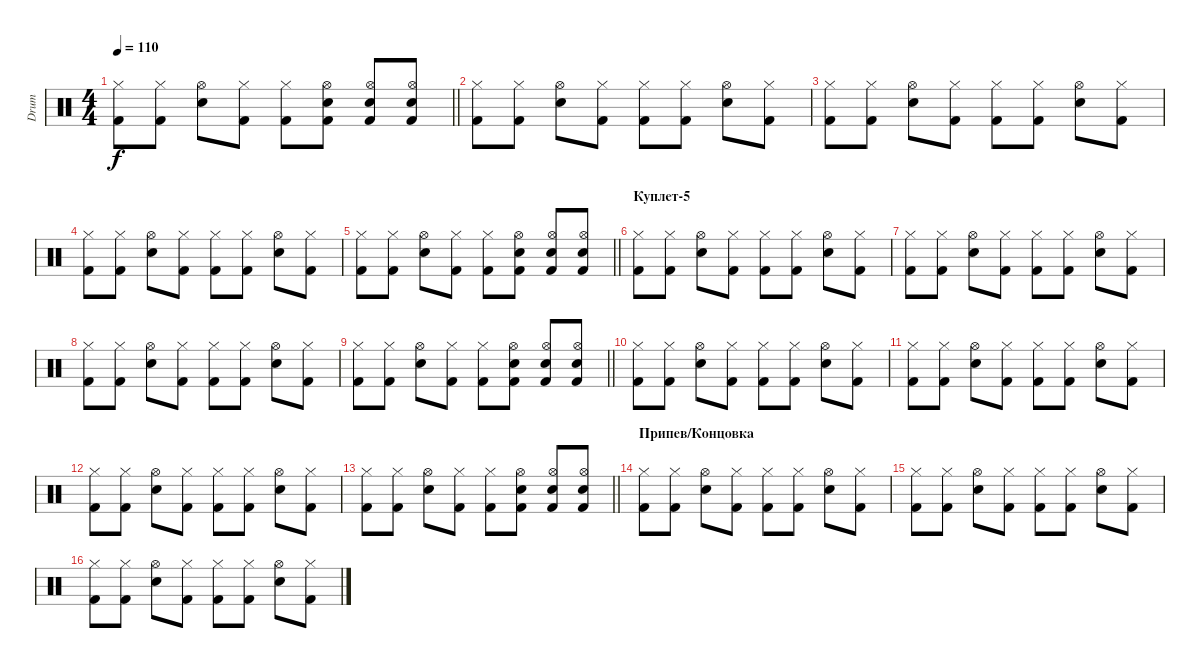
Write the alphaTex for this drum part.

\track ("Drum" "Drum") {instrument percussion}
\staff {score}
\articulation defaults
\ts (4 4)
\tempo 110
\clef neutral
\barLineRight lightlight
\ks c
("Hi-Hat (closed)" "Kick (hit) 2").8{dy f} ("Hi-Hat (closed)" "Kick (hit) 2").8 ("Hi-Hat (open)" "Snare (hit) 2").8 ("Hi-Hat (closed)" "Kick (hit) 2").8 ("Hi-Hat (closed)" "Kick (hit) 2").8 ("Hi-Hat (open)" "Snare (hit) 2" "Kick (hit) 2").8 ("Hi-Hat (open)" "Snare (hit) 2" "Kick (hit) 2").8 ("Hi-Hat (open)" "Snare (hit) 2" "Kick (hit) 2").8 |
("Hi-Hat (closed)" "Kick (hit) 2").8 ("Hi-Hat (closed)" "Kick (hit) 2").8 ("Hi-Hat (open)" "Snare (hit) 2").8 ("Hi-Hat (closed)" "Kick (hit) 2").8 ("Hi-Hat (closed)" "Kick (hit) 2").8 ("Hi-Hat (closed)" "Kick (hit) 2").8 ("Hi-Hat (open)" "Snare (hit) 2").8 ("Hi-Hat (closed)" "Kick (hit) 2").8 |
("Hi-Hat (closed)" "Kick (hit) 2").8 ("Hi-Hat (closed)" "Kick (hit) 2").8 ("Hi-Hat (open)" "Snare (hit) 2").8 ("Hi-Hat (closed)" "Kick (hit) 2").8 ("Hi-Hat (closed)" "Kick (hit) 2").8 ("Hi-Hat (closed)" "Kick (hit) 2").8 ("Hi-Hat (open)" "Snare (hit) 2").8 ("Hi-Hat (closed)" "Kick (hit) 2").8 |
("Hi-Hat (closed)" "Kick (hit) 2").8 ("Hi-Hat (closed)" "Kick (hit) 2").8 ("Hi-Hat (open)" "Snare (hit) 2").8 ("Hi-Hat (closed)" "Kick (hit) 2").8 ("Hi-Hat (closed)" "Kick (hit) 2").8 ("Hi-Hat (closed)" "Kick (hit) 2").8 ("Hi-Hat (open)" "Snare (hit) 2").8 ("Hi-Hat (closed)" "Kick (hit) 2").8 |
\barLineRight lightlight
("Hi-Hat (closed)" "Kick (hit) 2").8 ("Hi-Hat (closed)" "Kick (hit) 2").8 ("Hi-Hat (open)" "Snare (hit) 2").8 ("Hi-Hat (closed)" "Kick (hit) 2").8 ("Hi-Hat (closed)" "Kick (hit) 2").8 ("Hi-Hat (open)" "Snare (hit) 2" "Kick (hit) 2").8 ("Hi-Hat (open)" "Snare (hit) 2" "Kick (hit) 2").8 ("Hi-Hat (open)" "Snare (hit) 2" "Kick (hit) 2").8 |
\section ("" "Куплет-5")
("Hi-Hat (closed)" "Kick (hit) 2").8 ("Hi-Hat (closed)" "Kick (hit) 2").8 ("Hi-Hat (open)" "Snare (hit) 2").8 ("Hi-Hat (closed)" "Kick (hit) 2").8 ("Hi-Hat (closed)" "Kick (hit) 2").8 ("Hi-Hat (closed)" "Kick (hit) 2").8 ("Hi-Hat (open)" "Snare (hit) 2").8 ("Hi-Hat (closed)" "Kick (hit) 2").8 |
("Hi-Hat (closed)" "Kick (hit) 2").8 ("Hi-Hat (closed)" "Kick (hit) 2").8 ("Hi-Hat (open)" "Snare (hit) 2").8 ("Hi-Hat (closed)" "Kick (hit) 2").8 ("Hi-Hat (closed)" "Kick (hit) 2").8 ("Hi-Hat (closed)" "Kick (hit) 2").8 ("Hi-Hat (open)" "Snare (hit) 2").8 ("Hi-Hat (closed)" "Kick (hit) 2").8 |
("Hi-Hat (closed)" "Kick (hit) 2").8 ("Hi-Hat (closed)" "Kick (hit) 2").8 ("Hi-Hat (open)" "Snare (hit) 2").8 ("Hi-Hat (closed)" "Kick (hit) 2").8 ("Hi-Hat (closed)" "Kick (hit) 2").8 ("Hi-Hat (closed)" "Kick (hit) 2").8 ("Hi-Hat (open)" "Snare (hit) 2").8 ("Hi-Hat (closed)" "Kick (hit) 2").8 |
\barLineRight lightlight
("Hi-Hat (closed)" "Kick (hit) 2").8 ("Hi-Hat (closed)" "Kick (hit) 2").8 ("Hi-Hat (open)" "Snare (hit) 2").8 ("Hi-Hat (closed)" "Kick (hit) 2").8 ("Hi-Hat (closed)" "Kick (hit) 2").8 ("Hi-Hat (open)" "Snare (hit) 2" "Kick (hit) 2").8 ("Hi-Hat (open)" "Snare (hit) 2" "Kick (hit) 2").8 ("Hi-Hat (open)" "Snare (hit) 2" "Kick (hit) 2").8 |
("Hi-Hat (closed)" "Kick (hit) 2").8 ("Hi-Hat (closed)" "Kick (hit) 2").8 ("Hi-Hat (open)" "Snare (hit) 2").8 ("Hi-Hat (closed)" "Kick (hit) 2").8 ("Hi-Hat (closed)" "Kick (hit) 2").8 ("Hi-Hat (closed)" "Kick (hit) 2").8 ("Hi-Hat (open)" "Snare (hit) 2").8 ("Hi-Hat (closed)" "Kick (hit) 2").8 |
("Hi-Hat (closed)" "Kick (hit) 2").8 ("Hi-Hat (closed)" "Kick (hit) 2").8 ("Hi-Hat (open)" "Snare (hit) 2").8 ("Hi-Hat (closed)" "Kick (hit) 2").8 ("Hi-Hat (closed)" "Kick (hit) 2").8 ("Hi-Hat (closed)" "Kick (hit) 2").8 ("Hi-Hat (open)" "Snare (hit) 2").8 ("Hi-Hat (closed)" "Kick (hit) 2").8 |
("Hi-Hat (closed)" "Kick (hit) 2").8 ("Hi-Hat (closed)" "Kick (hit) 2").8 ("Hi-Hat (open)" "Snare (hit) 2").8 ("Hi-Hat (closed)" "Kick (hit) 2").8 ("Hi-Hat (closed)" "Kick (hit) 2").8 ("Hi-Hat (closed)" "Kick (hit) 2").8 ("Hi-Hat (open)" "Snare (hit) 2").8 ("Hi-Hat (closed)" "Kick (hit) 2").8 |
\barLineRight lightlight
("Hi-Hat (closed)" "Kick (hit) 2").8 ("Hi-Hat (closed)" "Kick (hit) 2").8 ("Hi-Hat (open)" "Snare (hit) 2").8 ("Hi-Hat (closed)" "Kick (hit) 2").8 ("Hi-Hat (closed)" "Kick (hit) 2").8 ("Hi-Hat (open)" "Snare (hit) 2" "Kick (hit) 2").8 ("Hi-Hat (open)" "Snare (hit) 2" "Kick (hit) 2").8 ("Hi-Hat (open)" "Snare (hit) 2" "Kick (hit) 2").8 |
\section ("" "Припев/Концовка")
("Hi-Hat (closed)" "Kick (hit) 2").8 ("Hi-Hat (closed)" "Kick (hit) 2").8 ("Hi-Hat (open)" "Snare (hit) 2").8 ("Hi-Hat (closed)" "Kick (hit) 2").8 ("Hi-Hat (closed)" "Kick (hit) 2").8 ("Hi-Hat (closed)" "Kick (hit) 2").8 ("Hi-Hat (open)" "Snare (hit) 2").8 ("Hi-Hat (closed)" "Kick (hit) 2").8 |
("Hi-Hat (closed)" "Kick (hit) 2").8 ("Hi-Hat (closed)" "Kick (hit) 2").8 ("Hi-Hat (open)" "Snare (hit) 2").8 ("Hi-Hat (closed)" "Kick (hit) 2").8 ("Hi-Hat (closed)" "Kick (hit) 2").8 ("Hi-Hat (closed)" "Kick (hit) 2").8 ("Hi-Hat (open)" "Snare (hit) 2").8 ("Hi-Hat (closed)" "Kick (hit) 2").8 |
("Hi-Hat (closed)" "Kick (hit) 2").8 ("Hi-Hat (closed)" "Kick (hit) 2").8 ("Hi-Hat (open)" "Snare (hit) 2").8 ("Hi-Hat (closed)" "Kick (hit) 2").8 ("Hi-Hat (closed)" "Kick (hit) 2").8 ("Hi-Hat (closed)" "Kick (hit) 2").8 ("Hi-Hat (open)" "Snare (hit) 2").8 ("Hi-Hat (closed)" "Kick (hit) 2").8
